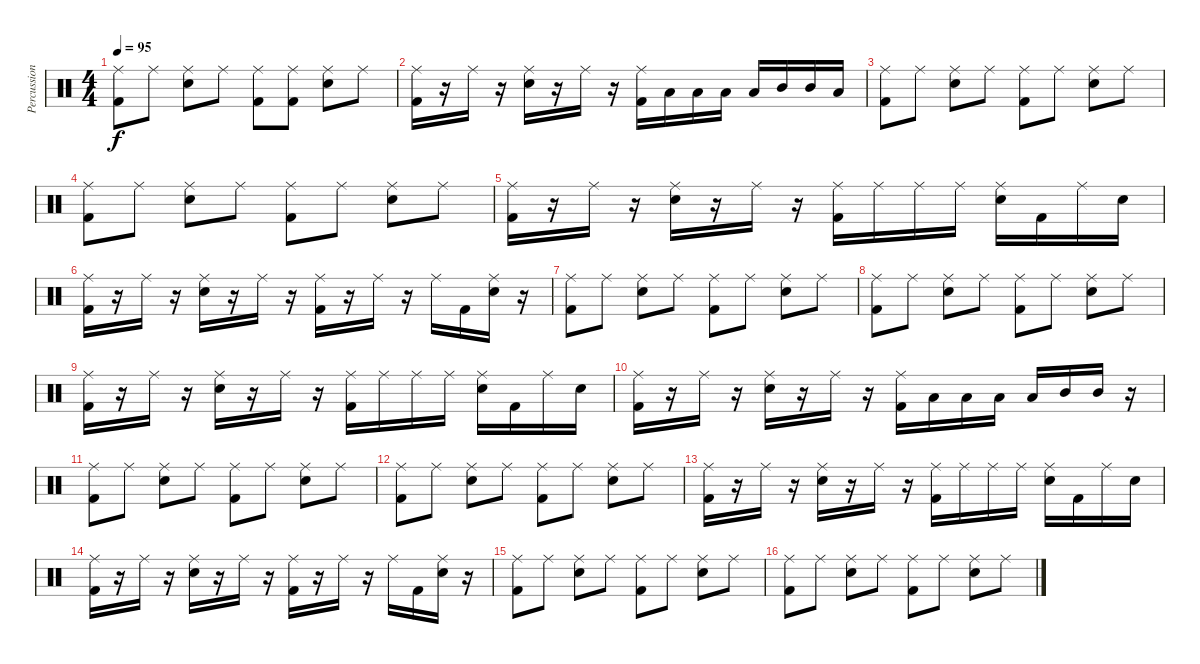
\track ("Percussion" "Percussion") {instrument percussion}
\staff
\articulation defaults
\ts (4 4)
\tempo 95
\clef neutral
\ks c
("Ride (middle)" "Kick (hit) 2").8{dy f} "Ride (middle)".8 ("Ride (middle)" "Electric Snare (hit)").8 "Ride (middle)".8 ("Ride (middle)" "Kick (hit) 2").8 ("Ride (middle)" "Kick (hit) 2").8 ("Ride (middle)" "Electric Snare (hit)").8 "Ride (middle)".8 |
("Ride (middle)" "Kick (hit) 2").16 r.16 "Ride (middle)".16 r.16 ("Ride (middle)" "Electric Snare (hit)").16 r.16 "Ride (middle)".16 r.16 ("Ride (middle)" "Kick (hit) 2").16 "Low Floor Tom (hit)".16 "Low Floor Tom (hit)".16 "Low Tom (hit)".16 "Low Tom (hit)".16 "Mid Tom (hit)".16 "Mid Tom (hit)".16 "Low Tom (hit)".16 |
("Ride (middle)" "Kick (hit) 2").8 "Ride (middle)".8 ("Ride (middle)" "Electric Snare (hit)").8 "Ride (middle)".8 ("Ride (middle)" "Kick (hit) 2").8 "Ride (middle)".8 ("Ride (middle)" "Electric Snare (hit)").8 "Ride (middle)".8 |
("Ride (middle)" "Kick (hit) 2").8 "Ride (middle)".8 ("Ride (middle)" "Electric Snare (hit)").8 "Ride (middle)".8 ("Ride (middle)" "Kick (hit) 2").8 "Ride (middle)".8 ("Ride (middle)" "Electric Snare (hit)").8 "Ride (middle)".8 |
("Ride (middle)" "Kick (hit) 2").16 r.16 "Ride (middle)".16 r.16 ("Ride (middle)" "Electric Snare (hit)").16 r.16 "Ride (middle)".16 r.16 ("Ride (middle)" "Kick (hit) 2").16 "Ride (middle)".16 "Ride (middle)".16 "Ride (middle)".16 ("Ride (middle)" "Electric Snare (hit)").16 "Kick (hit) 2".16 "Ride (middle)".16 "Electric Snare (hit)".16 |
("Ride (middle)" "Kick (hit) 2").16 r.16 "Ride (middle)".16 r.16 ("Ride (middle)" "Electric Snare (hit)").16 r.16 "Ride (middle)".16 r.16 ("Ride (middle)" "Kick (hit) 2").16 r.16 "Ride (middle)".16 r.16 "Ride (middle)".16 "Kick (hit) 2".16 ("Ride (middle)" "Electric Snare (hit)").16 r.16 |
("Ride (middle)" "Kick (hit) 2").8 "Ride (middle)".8 ("Ride (middle)" "Electric Snare (hit)").8 "Ride (middle)".8 ("Ride (middle)" "Kick (hit) 2").8 "Ride (middle)".8 ("Ride (middle)" "Electric Snare (hit)").8 "Ride (middle)".8 |
("Ride (middle)" "Kick (hit) 2").8 "Ride (middle)".8 ("Ride (middle)" "Electric Snare (hit)").8 "Ride (middle)".8 ("Ride (middle)" "Kick (hit) 2").8 "Ride (middle)".8 ("Ride (middle)" "Electric Snare (hit)").8 "Ride (middle)".8 |
("Ride (middle)" "Kick (hit) 2").16 r.16 "Ride (middle)".16 r.16 ("Ride (middle)" "Electric Snare (hit)").16 r.16 "Ride (middle)".16 r.16 ("Ride (middle)" "Kick (hit) 2").16 "Ride (middle)".16 "Ride (middle)".16 "Ride (middle)".16 ("Ride (middle)" "Electric Snare (hit)").16 "Kick (hit) 2".16 "Ride (middle)".16 "Electric Snare (hit)".16 |
("Ride (middle)" "Kick (hit) 2").16 r.16 "Ride (middle)".16 r.16 ("Ride (middle)" "Electric Snare (hit)").16 r.16 "Ride (middle)".16 r.16 ("Ride (middle)" "Kick (hit) 2").16 "Low Floor Tom (hit)".16 "Low Floor Tom (hit)".16 "Low Tom (hit)".16 "Low Tom (hit)".16 "Mid Tom (hit)".16 "Mid Tom (hit)".16 r.16 |
("Ride (middle)" "Kick (hit) 2").8 "Ride (middle)".8 ("Ride (middle)" "Electric Snare (hit)").8 "Ride (middle)".8 ("Ride (middle)" "Kick (hit) 2").8 "Ride (middle)".8 ("Ride (middle)" "Electric Snare (hit)").8 "Ride (middle)".8 |
("Ride (middle)" "Kick (hit) 2").8 "Ride (middle)".8 ("Ride (middle)" "Electric Snare (hit)").8 "Ride (middle)".8 ("Ride (middle)" "Kick (hit) 2").8 "Ride (middle)".8 ("Ride (middle)" "Electric Snare (hit)").8 "Ride (middle)".8 |
("Ride (middle)" "Kick (hit) 2").16 r.16 "Ride (middle)".16 r.16 ("Ride (middle)" "Electric Snare (hit)").16 r.16 "Ride (middle)".16 r.16 ("Ride (middle)" "Kick (hit) 2").16 "Ride (middle)".16 "Ride (middle)".16 "Ride (middle)".16 ("Ride (middle)" "Electric Snare (hit)").16 "Kick (hit) 2".16 "Ride (middle)".16 "Electric Snare (hit)".16 |
("Ride (middle)" "Kick (hit) 2").16 r.16 "Ride (middle)".16 r.16 ("Ride (middle)" "Electric Snare (hit)").16 r.16 "Ride (middle)".16 r.16 ("Ride (middle)" "Kick (hit) 2").16 r.16 "Ride (middle)".16 r.16 "Ride (middle)".16 "Kick (hit) 2".16 ("Ride (middle)" "Electric Snare (hit)").16 r.16 |
("Ride (middle)" "Kick (hit) 2").8 "Ride (middle)".8 ("Ride (middle)" "Electric Snare (hit)").8 "Ride (middle)".8 ("Ride (middle)" "Kick (hit) 2").8 "Ride (middle)".8 ("Ride (middle)" "Electric Snare (hit)").8 "Ride (middle)".8 |
("Ride (middle)" "Kick (hit) 2").8 "Ride (middle)".8 ("Ride (middle)" "Electric Snare (hit)").8 "Ride (middle)".8 ("Ride (middle)" "Kick (hit) 2").8 "Ride (middle)".8 ("Ride (middle)" "Electric Snare (hit)").8 "Ride (middle)".8
